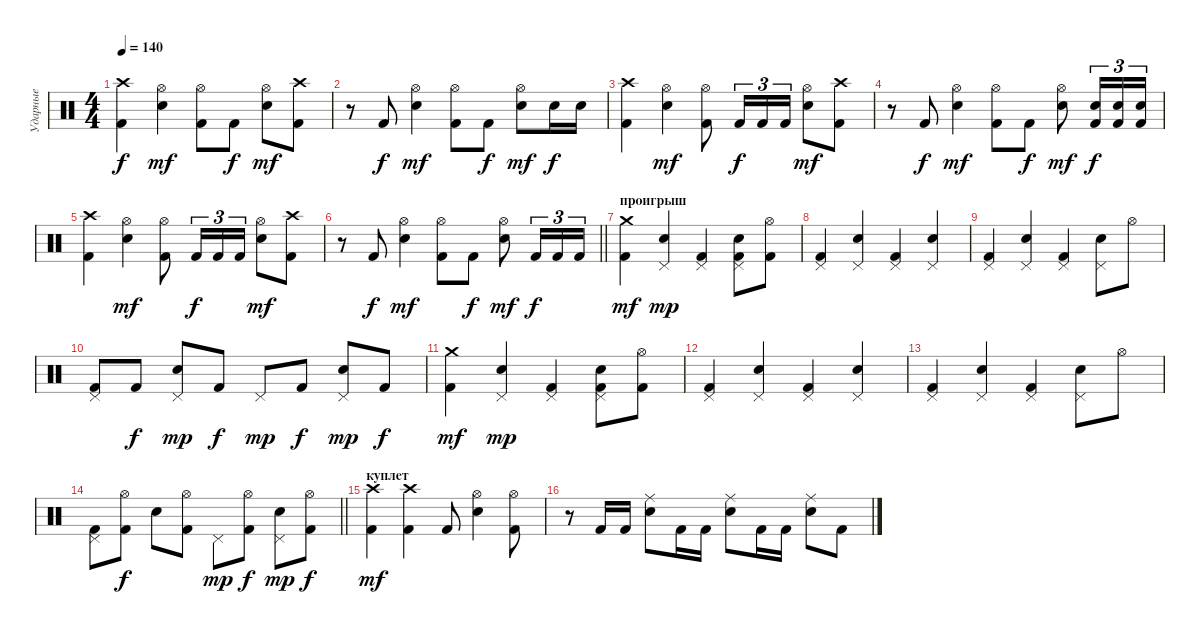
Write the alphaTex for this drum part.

\track ("Ударные" "Ударные") {instrument percussion}
\staff {score}
\articulation defaults
\ts (4 4)
\tempo 140
\clef neutral
\ks c
("Kick (hit) 2" "Crash high (hit)").4{dy f} ("Snare (hit) 2" "Hi-Hat (open)").4{dy mf} ("Kick (hit) 2" "Hi-Hat (open)").8 "Kick (hit) 2".8{dy f} ("Snare (hit) 2" "Hi-Hat (open)").8{dy mf} ("Kick (hit) 2" "Crash high (hit)").8 |
r.8 "Kick (hit) 2".8{dy f} ("Snare (hit) 2" "Hi-Hat (open)").4{dy mf} ("Kick (hit) 2" "Hi-Hat (open)").8 "Kick (hit) 2".8{dy f} ("Snare (hit) 2" "Hi-Hat (open)").8{dy mf} "Snare (hit) 2".16{dy f} "Snare (hit) 2".16 |
("Kick (hit) 2" "Crash high (hit)").4 ("Snare (hit) 2" "Hi-Hat (open)").4{dy mf} ("Kick (hit) 2" "Hi-Hat (open)").8 "Kick (hit) 2".16{tu (3 2) dy f} "Kick (hit) 2".16{tu (3 2)} "Kick (hit) 2".16{tu (3 2)} ("Snare (hit) 2" "Hi-Hat (open)").8{dy mf} ("Kick (hit) 2" "Crash high (hit)").8 |
r.8 "Kick (hit) 2".8{dy f} ("Snare (hit) 2" "Hi-Hat (open)").4{dy mf} ("Kick (hit) 2" "Hi-Hat (open)").8 "Kick (hit) 2".8{dy f} ("Snare (hit) 2" "Hi-Hat (open)").8{dy mf} ("Kick (hit) 2" "Snare (hit) 2").16{tu (3 2) dy f} ("Kick (hit) 2" "Snare (hit) 2").16{tu (3 2)} ("Kick (hit) 2" "Snare (hit) 2").16{tu (3 2)} |
("Kick (hit) 2" "Crash high (hit)").4 ("Snare (hit) 2" "Hi-Hat (open)").4{dy mf} ("Kick (hit) 2" "Hi-Hat (open)").8 "Kick (hit) 2".16{tu (3 2) dy f} "Kick (hit) 2".16{tu (3 2)} "Kick (hit) 2".16{tu (3 2)} ("Snare (hit) 2" "Hi-Hat (open)").8{dy mf} ("Kick (hit) 2" "Crash high (hit)").8 |
\barLineRight lightlight
r.8 "Kick (hit) 2".8{dy f} ("Snare (hit) 2" "Hi-Hat (open)").4{dy mf} ("Kick (hit) 2" "Hi-Hat (open)").8 "Kick (hit) 2".8{dy f} ("Snare (hit) 2" "Hi-Hat (open)").8{dy mf} "Kick (hit) 2".16{tu (3 2) dy f} "Kick (hit) 2".16{tu (3 2)} "Kick (hit) 2".16{tu (3 2)} |
\section ("" "проигрыш")
("Kick (hit) 2" "Crash medium (hit)").4{dy mf} ("Snare (hit) 2" "Pedal Hi-Hat (hit)").4{dy mp} ("Kick (hit) 2" "Pedal Hi-Hat (hit)").4 ("Kick (hit) 2" "Snare (hit) 2" "Pedal Hi-Hat (hit)").8 ("Kick (hit) 2" "Hi-Hat (open)").8 |
("Kick (hit) 2" "Pedal Hi-Hat (hit)").4 ("Snare (hit) 2" "Pedal Hi-Hat (hit)").4 ("Kick (hit) 2" "Pedal Hi-Hat (hit)").4 ("Snare (hit) 2" "Pedal Hi-Hat (hit)").4 |
("Kick (hit) 2" "Pedal Hi-Hat (hit)").4 ("Snare (hit) 2" "Pedal Hi-Hat (hit)").4 ("Kick (hit) 2" "Pedal Hi-Hat (hit)").4 ("Snare (hit) 2" "Pedal Hi-Hat (hit)").8 "Hi-Hat (open)".8 |
("Kick (hit) 2" "Pedal Hi-Hat (hit)").8 "Kick (hit) 2".8{dy f} ("Snare (hit) 2" "Pedal Hi-Hat (hit)").8{dy mp} "Kick (hit) 2".8{dy f} "Pedal Hi-Hat (hit)".8{dy mp} "Kick (hit) 2".8{dy f} ("Snare (hit) 2" "Pedal Hi-Hat (hit)").8{dy mp} "Kick (hit) 2".8{dy f} |
("Kick (hit) 2" "Crash medium (hit)").4{dy mf} ("Snare (hit) 2" "Pedal Hi-Hat (hit)").4{dy mp} ("Kick (hit) 2" "Pedal Hi-Hat (hit)").4 ("Kick (hit) 2" "Snare (hit) 2" "Pedal Hi-Hat (hit)").8 ("Kick (hit) 2" "Hi-Hat (open)").8 |
("Kick (hit) 2" "Pedal Hi-Hat (hit)").4 ("Snare (hit) 2" "Pedal Hi-Hat (hit)").4 ("Kick (hit) 2" "Pedal Hi-Hat (hit)").4 ("Snare (hit) 2" "Pedal Hi-Hat (hit)").4 |
("Kick (hit) 2" "Pedal Hi-Hat (hit)").4 ("Snare (hit) 2" "Pedal Hi-Hat (hit)").4 ("Kick (hit) 2" "Pedal Hi-Hat (hit)").4 ("Snare (hit) 2" "Pedal Hi-Hat (hit)").8 "Hi-Hat (open)".8 |
\barLineRight lightlight
("Kick (hit) 2" "Pedal Hi-Hat (hit)").8 ("Kick (hit) 2" "Hi-Hat (open)").8{dy f} "Snare (hit) 2".8 ("Kick (hit) 2" "Hi-Hat (open)").8 "Pedal Hi-Hat (hit)".8{dy mp} ("Kick (hit) 2" "Hi-Hat (open)").8{dy f} ("Snare (hit) 2" "Pedal Hi-Hat (hit)").8{dy mp} ("Kick (hit) 2" "Hi-Hat (open)").8{dy f} |
\section ("" "куплет")
("Kick (hit) 2" "Crash high (hit)").4{dy mf} ("Kick (hit) 2" "Crash high (hit)").4 "Kick (hit) 2".8 ("Snare (hit) 2" "Hi-Hat (open)").4 ("Kick (hit) 2" "Hi-Hat (open)").8 |
r.8 "Kick (hit) 2".16 "Kick (hit) 2".16 ("Snare (hit) 2" "Ride (middle)").8 "Kick (hit) 2".16 "Kick (hit) 2".16 ("Snare (hit) 2" "Ride (middle)").8 "Kick (hit) 2".16 "Kick (hit) 2".16 ("Snare (hit) 2" "Ride (middle)").8 "Kick (hit) 2".8
